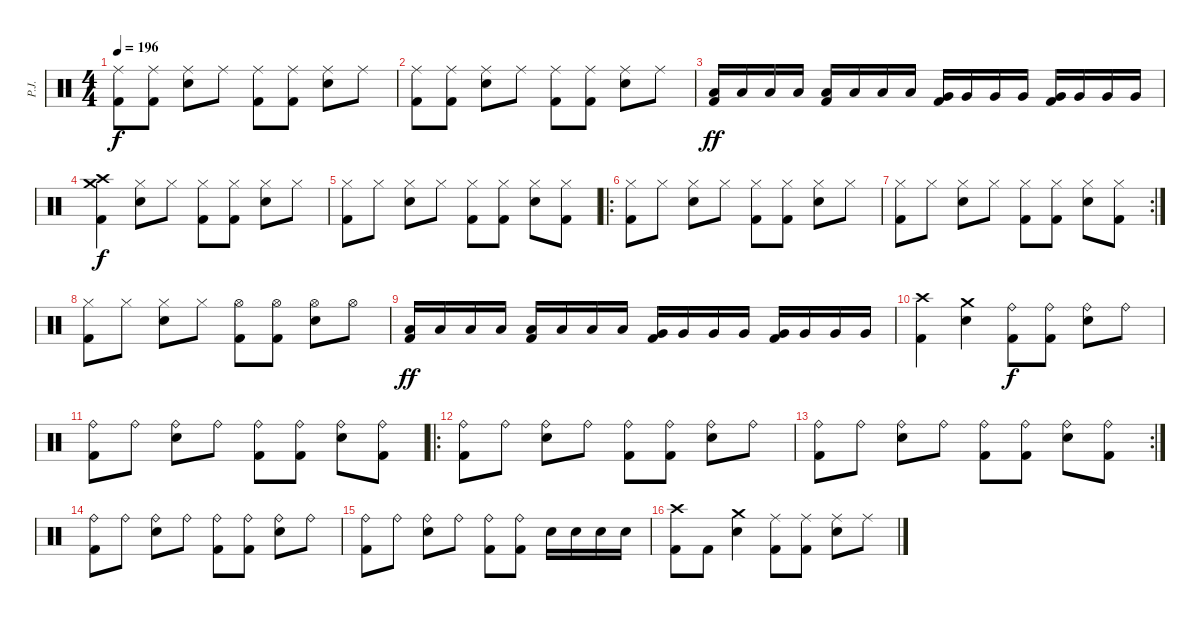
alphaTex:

\track ("P.J." "P.J.") {instrument percussion}
\staff {score}
\articulation defaults
\ts (4 4)
\tempo 196
\clef neutral
\ks c
("Ride (middle)" "Kick (hit) 2").8{dy f} ("Ride (middle)" "Kick (hit) 2").8 ("Ride (middle)" "Snare (hit) 2").8 "Ride (middle)".8 ("Ride (middle)" "Kick (hit) 2").8 ("Ride (middle)" "Kick (hit) 2").8 ("Ride (middle)" "Snare (hit) 2").8 "Ride (middle)".8 |
("Ride (middle)" "Kick (hit) 2").8 ("Ride (middle)" "Kick (hit) 2").8 ("Ride (middle)" "Snare (hit) 2").8 "Ride (middle)".8 ("Ride (middle)" "Kick (hit) 2").8 ("Ride (middle)" "Kick (hit) 2").8 ("Ride (middle)" "Snare (hit) 2").8 "Ride (middle)".8 |
("Low Tom (hit)" "Kick (hit) 2").16{dy ff} "Low Tom (hit)".16 "Low Tom (hit)".16 "Low Tom (hit)".16 ("Low Tom (hit)" "Kick (hit) 2").16 "Low Tom (hit)".16 "Low Tom (hit)".16 "Low Tom (hit)".16 ("Very Low Tom (hit)" "Kick (hit) 2").16 "Very Low Tom (hit)".16 "Very Low Tom (hit)".16 "Very Low Tom (hit)".16 ("Very Low Tom (hit)" "Kick (hit) 2").16 "Very Low Tom (hit)".16 "Very Low Tom (hit)".16 "Very Low Tom (hit)".16 |
("Crash high (hit)" "Crash medium (hit)" "Kick (hit) 2").4{dy f} ("Hi-Hat (closed)" "Snare (hit) 2").8 "Hi-Hat (closed)".8 ("Hi-Hat (closed)" "Kick (hit) 2").8 ("Hi-Hat (closed)" "Kick (hit) 2").8 ("Hi-Hat (closed)" "Snare (hit) 2").8 "Hi-Hat (closed)".8 |
("Hi-Hat (closed)" "Kick (hit) 2").8 "Hi-Hat (closed)".8 ("Hi-Hat (closed)" "Snare (hit) 2").8 "Hi-Hat (closed)".8 ("Hi-Hat (closed)" "Kick (hit) 2").8 ("Hi-Hat (closed)" "Kick (hit) 2").8 ("Hi-Hat (closed)" "Snare (hit) 2").8 ("Hi-Hat (closed)" "Kick (hit) 2").8 |
\ro
("Hi-Hat (closed)" "Kick (hit) 2").8 "Hi-Hat (closed)".8 ("Hi-Hat (closed)" "Snare (hit) 2").8 "Hi-Hat (closed)".8 ("Hi-Hat (closed)" "Kick (hit) 2").8 ("Hi-Hat (closed)" "Kick (hit) 2").8 ("Hi-Hat (closed)" "Snare (hit) 2").8 "Hi-Hat (closed)".8 |
\rc 2
("Hi-Hat (closed)" "Kick (hit) 2").8 "Hi-Hat (closed)".8 ("Hi-Hat (closed)" "Snare (hit) 2").8 "Hi-Hat (closed)".8 ("Hi-Hat (closed)" "Kick (hit) 2").8 ("Hi-Hat (closed)" "Kick (hit) 2").8 ("Hi-Hat (closed)" "Snare (hit) 2").8 ("Hi-Hat (closed)" "Kick (hit) 2").8 |
("Hi-Hat (closed)" "Kick (hit) 2").8 "Hi-Hat (closed)".8 ("Hi-Hat (closed)" "Snare (hit) 2").8 "Hi-Hat (closed)".8 ("Hi-Hat (open)" "Kick (hit) 2").8 ("Hi-Hat (open)" "Kick (hit) 2").8 ("Hi-Hat (open)" "Snare (hit) 2").8 "Hi-Hat (open)".8 |
("Low Tom (hit)" "Kick (hit) 2").16{dy ff} "Low Tom (hit)".16 "Low Tom (hit)".16 "Low Tom (hit)".16 ("Low Tom (hit)" "Kick (hit) 2").16 "Low Tom (hit)".16 "Low Tom (hit)".16 "Low Tom (hit)".16 ("Very Low Tom (hit)" "Kick (hit) 2").16 "Very Low Tom (hit)".16 "Very Low Tom (hit)".16 "Very Low Tom (hit)".16 ("Very Low Tom (hit)" "Kick (hit) 2").16 "Very Low Tom (hit)".16 "Very Low Tom (hit)".16 "Very Low Tom (hit)".16 |
("Crash high (hit)" "Kick (hit) 2").4 ("Crash medium (hit)" "Snare (hit) 2").4 ("Ride (bell)" "Kick (hit) 2").8{dy f} ("Ride (bell)" "Kick (hit) 2").8 ("Ride (bell)" "Snare (hit) 2").8 "Ride (bell)".8 |
("Ride (bell)" "Kick (hit) 2").8 "Ride (bell)".8 ("Ride (bell)" "Snare (hit) 2").8 "Ride (bell)".8 ("Ride (bell)" "Kick (hit) 2").8 ("Ride (bell)" "Kick (hit) 2").8 ("Ride (bell)" "Snare (hit) 2").8 ("Ride (bell)" "Kick (hit) 2").8 |
\ro
("Ride (bell)" "Kick (hit) 2").8 "Ride (bell)".8 ("Ride (bell)" "Snare (hit) 2").8 "Ride (bell)".8 ("Ride (bell)" "Kick (hit) 2").8 ("Ride (bell)" "Kick (hit) 2").8 ("Ride (bell)" "Snare (hit) 2").8 "Ride (bell)".8 |
\rc 2
("Ride (bell)" "Kick (hit) 2").8 "Ride (bell)".8 ("Ride (bell)" "Snare (hit) 2").8 "Ride (bell)".8 ("Ride (bell)" "Kick (hit) 2").8 ("Ride (bell)" "Kick (hit) 2").8 ("Ride (bell)" "Snare (hit) 2").8 ("Ride (bell)" "Kick (hit) 2").8 |
("Ride (bell)" "Kick (hit) 2").8 "Ride (bell)".8 ("Ride (bell)" "Snare (hit) 2").8 "Ride (bell)".8 ("Ride (bell)" "Kick (hit) 2").8 ("Ride (bell)" "Kick (hit) 2").8 ("Ride (bell)" "Snare (hit) 2").8 "Ride (bell)".8 |
("Ride (bell)" "Kick (hit) 2").8 "Ride (bell)".8 ("Ride (bell)" "Snare (hit) 2").8 "Ride (bell)".8 ("Ride (bell)" "Kick (hit) 2").8 ("Ride (bell)" "Kick (hit) 2").8 "Snare (hit) 2".16 "Snare (hit) 2".16 "Snare (hit) 2".16 "Snare (hit) 2".16 |
("Crash high (hit)" "Kick (hit) 2").8 "Kick (hit) 2".8 ("Crash medium (hit)" "Snare (hit) 2").4 ("Ride (middle)" "Kick (hit) 2").8 ("Ride (middle)" "Kick (hit) 2").8 ("Ride (middle)" "Snare (hit) 2").8 "Ride (middle)".8
